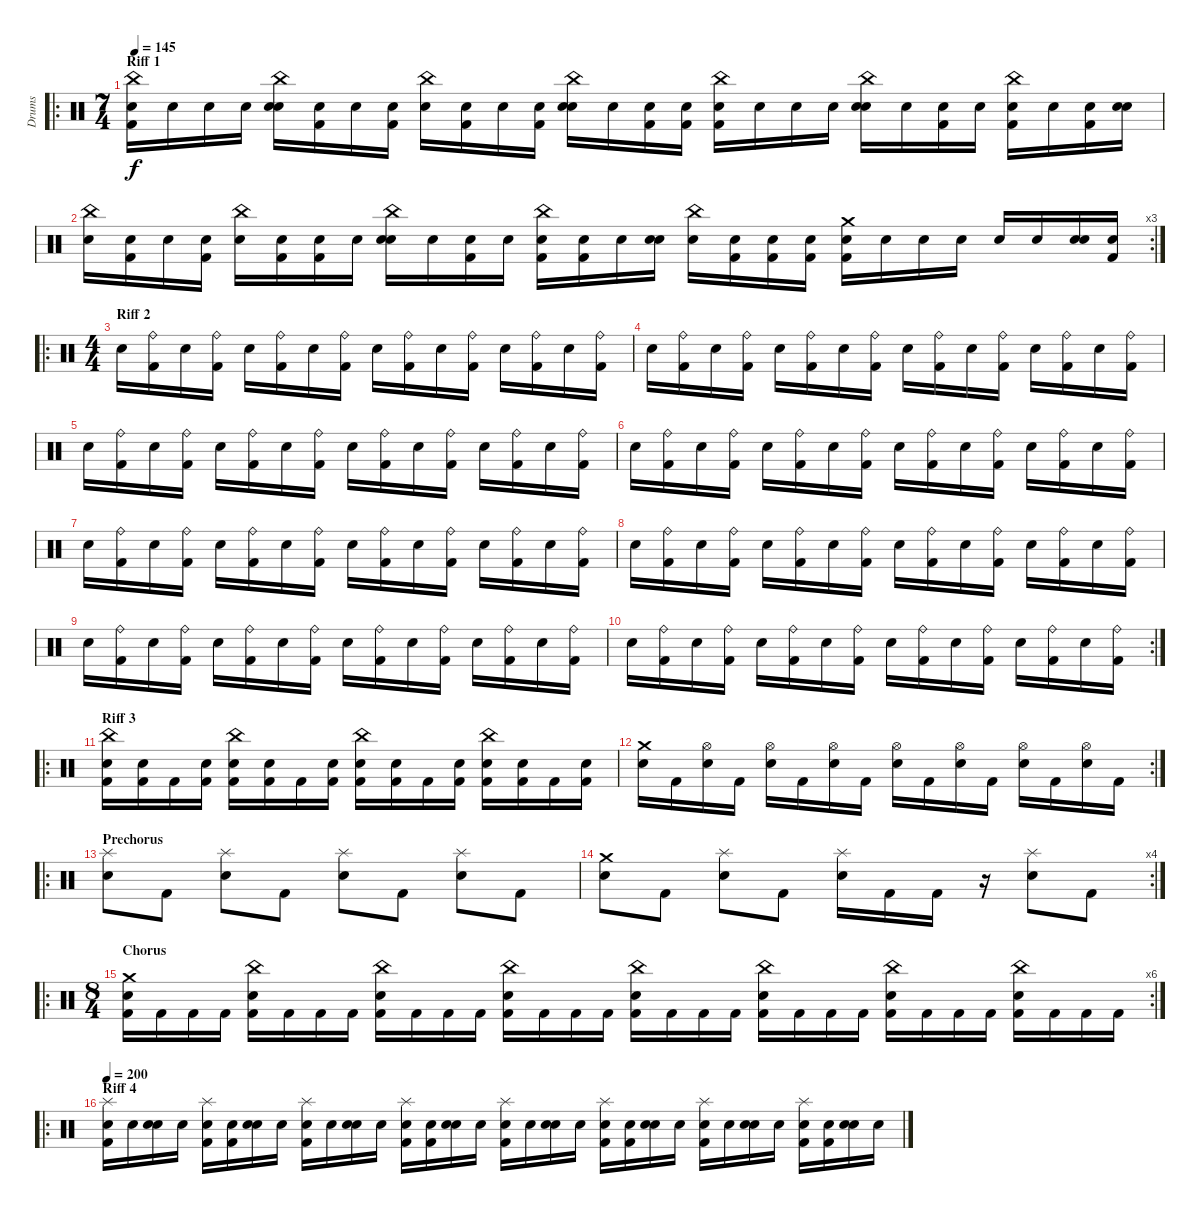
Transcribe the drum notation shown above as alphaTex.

\track ("Drums" "Drums") {instrument percussion}
\staff {score}
\articulation defaults
\ro
\ts (7 4)
\section ("" "Riff 1")
\tempo 145
\clef neutral
\ks c
("Snare (hit)" "Kick (hit) 2" "China (hit)").16{dy f} "Snare (hit)".16 "Snare (hit)".16 "Snare (hit)".16 ("Snare (hit)" "Snare (hit) 2" "China (hit)").16 ("Snare (hit)" "Kick (hit) 2").16 "Snare (hit)".16 ("Snare (hit)" "Kick (hit) 2").16 ("Snare (hit)" "China (hit)").16 ("Snare (hit)" "Kick (hit) 2").16 "Snare (hit)".16 ("Snare (hit)" "Kick (hit) 2").16 ("Snare (hit)" "Snare (hit) 2" "China (hit)").16 "Snare (hit)".16 ("Snare (hit)" "Kick (hit) 2").16 ("Snare (hit)" "Kick (hit) 2").16 ("Snare (hit)" "Kick (hit) 2" "China (hit)").16 "Snare (hit)".16 "Snare (hit)".16 "Snare (hit)".16 ("Snare (hit)" "Snare (hit) 2" "China (hit)").16 "Snare (hit)".16 ("Snare (hit)" "Kick (hit) 2").16 "Snare (hit)".16 ("Snare (hit)" "Kick (hit) 2" "China (hit)").16 "Snare (hit)".16 ("Snare (hit)" "Kick (hit) 2").16 ("Snare (hit)" "Snare (hit) 2").16 |
\rc 3
("Snare (hit)" "China (hit)").16 ("Snare (hit)" "Kick (hit) 2").16 "Snare (hit)".16 ("Snare (hit)" "Kick (hit) 2").16 ("Snare (hit)" "China (hit)").16 ("Snare (hit)" "Kick (hit) 2").16 ("Snare (hit)" "Kick (hit) 2").16 "Snare (hit)".16 ("Snare (hit)" "Snare (hit) 2" "China (hit)").16 "Snare (hit)".16 ("Snare (hit)" "Kick (hit) 2").16 "Snare (hit)".16 ("Snare (hit)" "Kick (hit) 2" "China (hit)").16 ("Snare (hit)" "Kick (hit) 2").16 "Snare (hit)".16 ("Snare (hit)" "Snare (hit) 2").16 ("Snare (hit)" "China (hit)").16 ("Snare (hit)" "Kick (hit) 2").16 ("Snare (hit)" "Kick (hit) 2").16 ("Snare (hit)" "Kick (hit) 2").16 ("Snare (hit)" "Kick (hit) 2" "Crash medium (hit)").16 "Snare (hit)".16 "Snare (hit)".16 "Snare (hit)".16 "Snare (hit)".16 "Snare (hit)".16 ("Snare (hit)" "Snare (hit) 2").16 ("Snare (hit)" "Kick (hit) 2").16 |
\ro
\ts (4 4)
\section ("" "Riff 2")
"Snare (hit) 2".16 ("Kick (hit) 2" "Ride (bell)").16 "Snare (hit) 2".16 ("Kick (hit) 2" "Ride (bell)").16 "Snare (hit) 2".16 ("Kick (hit) 2" "Ride (bell)").16 "Snare (hit) 2".16 ("Kick (hit) 2" "Ride (bell)").16 "Snare (hit) 2".16 ("Kick (hit) 2" "Ride (bell)").16 "Snare (hit) 2".16 ("Kick (hit) 2" "Ride (bell)").16 "Snare (hit) 2".16 ("Kick (hit) 2" "Ride (bell)").16 "Snare (hit) 2".16 ("Kick (hit) 2" "Ride (bell)").16 |
"Snare (hit) 2".16 ("Kick (hit) 2" "Ride (bell)").16 "Snare (hit) 2".16 ("Kick (hit) 2" "Ride (bell)").16 "Snare (hit) 2".16 ("Kick (hit) 2" "Ride (bell)").16 "Snare (hit) 2".16 ("Kick (hit) 2" "Ride (bell)").16 "Snare (hit) 2".16 ("Kick (hit) 2" "Ride (bell)").16 "Snare (hit) 2".16 ("Kick (hit) 2" "Ride (bell)").16 "Snare (hit) 2".16 ("Kick (hit) 2" "Ride (bell)").16 "Snare (hit) 2".16 ("Kick (hit) 2" "Ride (bell)").16 |
"Snare (hit) 2".16 ("Kick (hit) 2" "Ride (bell)").16 "Snare (hit) 2".16 ("Kick (hit) 2" "Ride (bell)").16 "Snare (hit) 2".16 ("Kick (hit) 2" "Ride (bell)").16 "Snare (hit) 2".16 ("Kick (hit) 2" "Ride (bell)").16 "Snare (hit) 2".16 ("Kick (hit) 2" "Ride (bell)").16 "Snare (hit) 2".16 ("Kick (hit) 2" "Ride (bell)").16 "Snare (hit) 2".16 ("Kick (hit) 2" "Ride (bell)").16 "Snare (hit) 2".16 ("Kick (hit) 2" "Ride (bell)").16 |
"Snare (hit) 2".16 ("Kick (hit) 2" "Ride (bell)").16 "Snare (hit) 2".16 ("Kick (hit) 2" "Ride (bell)").16 "Snare (hit) 2".16 ("Kick (hit) 2" "Ride (bell)").16 "Snare (hit) 2".16 ("Kick (hit) 2" "Ride (bell)").16 "Snare (hit) 2".16 ("Kick (hit) 2" "Ride (bell)").16 "Snare (hit) 2".16 ("Kick (hit) 2" "Ride (bell)").16 "Snare (hit) 2".16 ("Kick (hit) 2" "Ride (bell)").16 "Snare (hit) 2".16 ("Kick (hit) 2" "Ride (bell)").16 |
"Snare (hit) 2".16 ("Kick (hit) 2" "Ride (bell)").16 "Snare (hit) 2".16 ("Kick (hit) 2" "Ride (bell)").16 "Snare (hit) 2".16 ("Kick (hit) 2" "Ride (bell)").16 "Snare (hit) 2".16 ("Kick (hit) 2" "Ride (bell)").16 "Snare (hit) 2".16 ("Kick (hit) 2" "Ride (bell)").16 "Snare (hit) 2".16 ("Kick (hit) 2" "Ride (bell)").16 "Snare (hit) 2".16 ("Kick (hit) 2" "Ride (bell)").16 "Snare (hit) 2".16 ("Kick (hit) 2" "Ride (bell)").16 |
"Snare (hit) 2".16 ("Kick (hit) 2" "Ride (bell)").16 "Snare (hit) 2".16 ("Kick (hit) 2" "Ride (bell)").16 "Snare (hit) 2".16 ("Kick (hit) 2" "Ride (bell)").16 "Snare (hit) 2".16 ("Kick (hit) 2" "Ride (bell)").16 "Snare (hit) 2".16 ("Kick (hit) 2" "Ride (bell)").16 "Snare (hit) 2".16 ("Kick (hit) 2" "Ride (bell)").16 "Snare (hit) 2".16 ("Kick (hit) 2" "Ride (bell)").16 "Snare (hit) 2".16 ("Kick (hit) 2" "Ride (bell)").16 |
"Snare (hit) 2".16 ("Kick (hit) 2" "Ride (bell)").16 "Snare (hit) 2".16 ("Kick (hit) 2" "Ride (bell)").16 "Snare (hit) 2".16 ("Kick (hit) 2" "Ride (bell)").16 "Snare (hit) 2".16 ("Kick (hit) 2" "Ride (bell)").16 "Snare (hit) 2".16 ("Kick (hit) 2" "Ride (bell)").16 "Snare (hit) 2".16 ("Kick (hit) 2" "Ride (bell)").16 "Snare (hit) 2".16 ("Kick (hit) 2" "Ride (bell)").16 "Snare (hit) 2".16 ("Kick (hit) 2" "Ride (bell)").16 |
\rc 2 "Snare (hit) 2".16
("Kick (hit) 2" "Ride (bell)").16 "Snare (hit) 2".16 ("Kick (hit) 2" "Ride (bell)").16 "Snare (hit) 2".16 ("Kick (hit) 2" "Ride (bell)").16 "Snare (hit) 2".16 ("Kick (hit) 2" "Ride (bell)").16 "Snare (hit) 2".16 ("Kick (hit) 2" "Ride (bell)").16 "Snare (hit) 2".16 ("Kick (hit) 2" "Ride (bell)").16 "Snare (hit) 2".16 ("Kick (hit) 2" "Ride (bell)").16 "Snare (hit) 2".16 ("Kick (hit) 2" "Ride (bell)").16 |
\ro
\section ("" "Riff 3")
("Kick (hit) 2" "Snare (hit) 2" "China (hit)").16 ("Kick (hit) 2" "Snare (hit) 2").16 "Kick (hit) 2".16 ("Kick (hit) 2" "Snare (hit) 2").16 ("Kick (hit) 2" "Snare (hit) 2" "China (hit)").16 ("Kick (hit) 2" "Snare (hit) 2").16 "Kick (hit) 2".16 ("Kick (hit) 2" "Snare (hit) 2").16 ("Kick (hit) 2" "Snare (hit) 2" "China (hit)").16 ("Kick (hit) 2" "Snare (hit) 2").16 "Kick (hit) 2".16 ("Kick (hit) 2" "Snare (hit) 2").16 ("Kick (hit) 2" "Snare (hit) 2" "China (hit)").16 ("Kick (hit) 2" "Snare (hit) 2").16 "Kick (hit) 2".16 ("Kick (hit) 2" "Snare (hit) 2").16 |
\rc 2
("Snare (hit) 2" "Crash medium (hit)").16 "Kick (hit) 2".16 ("Snare (hit) 2" "Hi-Hat (open)").16 "Kick (hit) 2".16 ("Snare (hit) 2" "Hi-Hat (open)").16 "Kick (hit) 2".16 ("Snare (hit) 2" "Hi-Hat (open)").16 "Kick (hit) 2".16 ("Snare (hit) 2" "Hi-Hat (open)").16 "Kick (hit) 2".16 ("Snare (hit) 2" "Hi-Hat (open)").16 "Kick (hit) 2".16 ("Snare (hit) 2" "Hi-Hat (open)").16 "Kick (hit) 2".16 ("Snare (hit) 2" "Hi-Hat (open)").16 "Kick (hit) 2".16 |
\ro
\section ("" "Prechorus")
("Splash (hit)" "Snare (hit) 2").8 "Kick (hit) 2".8 ("Splash (hit)" "Snare (hit) 2").8 "Kick (hit) 2".8 ("Splash (hit)" "Snare (hit) 2").8 "Kick (hit) 2".8 ("Splash (hit)" "Snare (hit) 2").8 "Kick (hit) 2".8 |
\rc 4
("Crash medium (hit)" "Snare (hit) 2").8 "Kick (hit) 2".8 ("Splash (hit)" "Snare (hit) 2").8 "Kick (hit) 2".8 ("Splash (hit)" "Snare (hit) 2").16 "Kick (hit) 2".16 "Kick (hit) 2".16 r.16 ("Splash (hit)" "Snare (hit) 2").8 "Kick (hit) 2".8 |
\ro
\rc 6
\ts (8 4)
\section ("" "Chorus")
("Kick (hit) 2" "Snare (hit) 2" "Crash medium (hit)").16 "Kick (hit) 2".16 "Kick (hit) 2".16 "Kick (hit) 2".16 ("Kick (hit) 2" "Snare (hit) 2" "China (hit)").16 "Kick (hit) 2".16 "Kick (hit) 2".16 "Kick (hit) 2".16 ("Kick (hit) 2" "Snare (hit) 2" "China (hit)").16 "Kick (hit) 2".16 "Kick (hit) 2".16 "Kick (hit) 2".16 ("Kick (hit) 2" "Snare (hit) 2" "China (hit)").16 "Kick (hit) 2".16 "Kick (hit) 2".16 "Kick (hit) 2".16 ("Kick (hit) 2" "Snare (hit) 2" "China (hit)").16 "Kick (hit) 2".16 "Kick (hit) 2".16 "Kick (hit) 2".16 ("Kick (hit) 2" "Snare (hit) 2" "China (hit)").16 "Kick (hit) 2".16 "Kick (hit) 2".16 "Kick (hit) 2".16 ("Kick (hit) 2" "Snare (hit) 2" "China (hit)").16 "Kick (hit) 2".16 "Kick (hit) 2".16 "Kick (hit) 2".16 ("Kick (hit) 2" "Snare (hit) 2" "China (hit)").16 "Kick (hit) 2".16 "Kick (hit) 2".16 "Kick (hit) 2".16 |
\ro
\section ("" "Riff 4")
\tempo 200
("Snare (hit)" "Kick (hit) 2" "Splash (hit)").16 "Snare (hit)".16 ("Snare (hit)" "Snare (hit) 2").16 "Snare (hit)".16 ("Snare (hit)" "Kick (hit) 2" "Splash (hit)").16 ("Snare (hit)" "Kick (hit) 2").16 ("Snare (hit)" "Snare (hit) 2").16 "Snare (hit)".16 ("Snare (hit)" "Kick (hit) 2" "Splash (hit)").16 "Snare (hit)".16 ("Snare (hit)" "Snare (hit) 2").16 "Snare (hit)".16 ("Snare (hit)" "Kick (hit) 2" "Splash (hit)").16 ("Snare (hit)" "Kick (hit) 2").16 ("Snare (hit)" "Snare (hit) 2").16 "Snare (hit)".16 ("Snare (hit)" "Kick (hit) 2" "Splash (hit)").16 "Snare (hit)".16 ("Snare (hit)" "Snare (hit) 2").16 "Snare (hit)".16 ("Snare (hit)" "Kick (hit) 2" "Splash (hit)").16 ("Snare (hit)" "Kick (hit) 2").16 ("Snare (hit)" "Snare (hit) 2").16 "Snare (hit)".16 ("Snare (hit)" "Kick (hit) 2" "Splash (hit)").16 "Snare (hit)".16 ("Snare (hit)" "Snare (hit) 2").16 "Snare (hit)".16 ("Snare (hit)" "Kick (hit) 2" "Splash (hit)").16 ("Snare (hit)" "Kick (hit) 2").16 ("Snare (hit)" "Snare (hit) 2").16 "Snare (hit)".16
